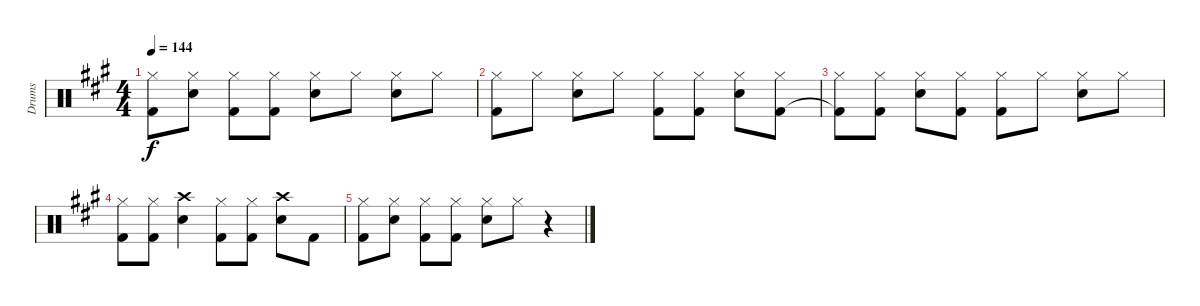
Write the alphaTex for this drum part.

\track ("Drums" "Drums") {instrument percussion}
\staff {score}
\articulation defaults
\ts (4 4)
\tempo 144
\clef neutral
\ks a
("Hi-Hat (closed)" "Kick (hit) 2").8{dy f} ("Hi-Hat (closed)" "Snare (hit) 2").8 ("Hi-Hat (closed)" "Kick (hit) 2").8 ("Hi-Hat (closed)" "Kick (hit) 2").8 ("Hi-Hat (closed)" "Snare (hit) 2").8 "Hi-Hat (closed)".8 ("Hi-Hat (closed)" "Snare (hit) 2").8 "Hi-Hat (closed)".8 |
("Hi-Hat (closed)" "Kick (hit) 2").8 "Hi-Hat (closed)".8 ("Hi-Hat (closed)" "Snare (hit) 2").8 "Hi-Hat (closed)".8 ("Hi-Hat (closed)" "Kick (hit) 2").8 ("Hi-Hat (closed)" "Kick (hit) 2").8 ("Hi-Hat (closed)" "Snare (hit) 2").8 ("Hi-Hat (closed)" "Kick (hit) 2").8 |
("Hi-Hat (closed)" "Kick (hit) 2"{t}).8 ("Hi-Hat (closed)" "Kick (hit) 2").8 ("Hi-Hat (closed)" "Snare (hit) 2").8 ("Hi-Hat (closed)" "Kick (hit) 2").8 ("Hi-Hat (closed)" "Kick (hit) 2").8 "Hi-Hat (closed)".8 ("Hi-Hat (closed)" "Snare (hit) 2").8 "Hi-Hat (closed)".8 |
("Hi-Hat (closed)" "Kick (hit) 2").8 ("Hi-Hat (closed)" "Kick (hit) 2").8 ("Crash high (hit)" "Snare (hit) 2").4 ("Hi-Hat (closed)" "Kick (hit) 2").8 ("Hi-Hat (closed)" "Kick (hit) 2").8 ("Crash high (hit)" "Snare (hit) 2").8 "Kick (hit) 2".8 |
("Hi-Hat (closed)" "Kick (hit) 2").8 ("Hi-Hat (closed)" "Snare (hit) 2").8 ("Hi-Hat (closed)" "Kick (hit) 2").8 ("Hi-Hat (closed)" "Kick (hit) 2").8 ("Hi-Hat (closed)" "Snare (hit) 2").8 "Hi-Hat (closed)".8 r.4
